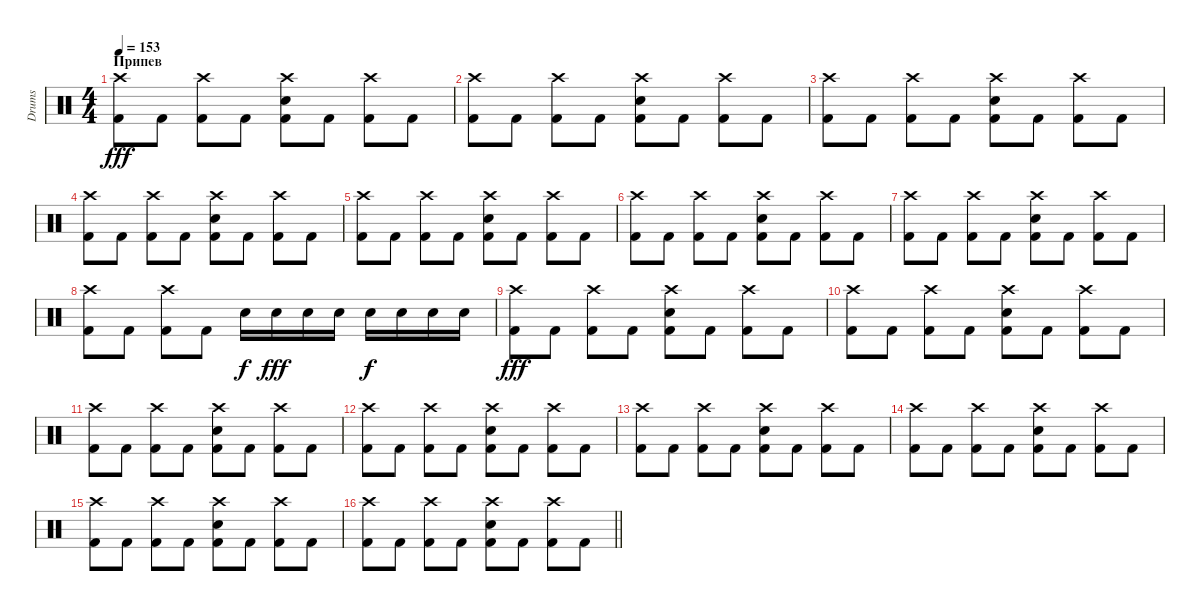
\track ("Drums" "Drums") {instrument percussion}
\staff {score}
\articulation defaults
\ts (4 4)
\section ("" "Припев")
\tempo 153
\clef neutral
\ks c
("Crash high (hit)" "Kick (hit) 2").8{dy fff} "Kick (hit) 2".8 ("Crash high (hit)" "Kick (hit) 2").8 "Kick (hit) 2".8 ("Crash high (hit)" "Electric Snare (hit)" "Kick (hit) 2").8 "Kick (hit) 2".8 ("Crash high (hit)" "Kick (hit) 2").8 "Kick (hit) 2".8 |
("Crash high (hit)" "Kick (hit) 2").8 "Kick (hit) 2".8 ("Crash high (hit)" "Kick (hit) 2").8 "Kick (hit) 2".8 ("Crash high (hit)" "Electric Snare (hit)" "Kick (hit) 2").8 "Kick (hit) 2".8 ("Crash high (hit)" "Kick (hit) 2").8 "Kick (hit) 2".8 |
("Crash high (hit)" "Kick (hit) 2").8 "Kick (hit) 2".8 ("Crash high (hit)" "Kick (hit) 2").8 "Kick (hit) 2".8 ("Crash high (hit)" "Electric Snare (hit)" "Kick (hit) 2").8 "Kick (hit) 2".8 ("Crash high (hit)" "Kick (hit) 2").8 "Kick (hit) 2".8 |
("Crash high (hit)" "Kick (hit) 2").8 "Kick (hit) 2".8 ("Crash high (hit)" "Kick (hit) 2").8 "Kick (hit) 2".8 ("Crash high (hit)" "Electric Snare (hit)" "Kick (hit) 2").8 "Kick (hit) 2".8 ("Crash high (hit)" "Kick (hit) 2").8 "Kick (hit) 2".8 |
("Crash high (hit)" "Kick (hit) 2").8 "Kick (hit) 2".8 ("Crash high (hit)" "Kick (hit) 2").8 "Kick (hit) 2".8 ("Crash high (hit)" "Electric Snare (hit)" "Kick (hit) 2").8 "Kick (hit) 2".8 ("Crash high (hit)" "Kick (hit) 2").8 "Kick (hit) 2".8 |
("Crash high (hit)" "Kick (hit) 2").8 "Kick (hit) 2".8 ("Crash high (hit)" "Kick (hit) 2").8 "Kick (hit) 2".8 ("Crash high (hit)" "Electric Snare (hit)" "Kick (hit) 2").8 "Kick (hit) 2".8 ("Crash high (hit)" "Kick (hit) 2").8 "Kick (hit) 2".8 |
("Crash high (hit)" "Kick (hit) 2").8 "Kick (hit) 2".8 ("Crash high (hit)" "Kick (hit) 2").8 "Kick (hit) 2".8 ("Crash high (hit)" "Electric Snare (hit)" "Kick (hit) 2").8 "Kick (hit) 2".8 ("Crash high (hit)" "Kick (hit) 2").8 "Kick (hit) 2".8 |
("Crash high (hit)" "Kick (hit) 2").8 "Kick (hit) 2".8 ("Crash high (hit)" "Kick (hit) 2").8 "Kick (hit) 2".8 "Electric Snare (hit)".16{dy f} "Electric Snare (hit)".16{dy fff} "Electric Snare (hit)".16 "Electric Snare (hit)".16 "Electric Snare (hit)".16{dy f} "Electric Snare (hit)".16 "Electric Snare (hit)".16 "Electric Snare (hit)".16 |
("Crash high (hit)" "Kick (hit) 2").8{dy fff} "Kick (hit) 2".8 ("Crash high (hit)" "Kick (hit) 2").8 "Kick (hit) 2".8 ("Crash high (hit)" "Electric Snare (hit)" "Kick (hit) 2").8 "Kick (hit) 2".8 ("Crash high (hit)" "Kick (hit) 2").8 "Kick (hit) 2".8 |
("Crash high (hit)" "Kick (hit) 2").8 "Kick (hit) 2".8 ("Crash high (hit)" "Kick (hit) 2").8 "Kick (hit) 2".8 ("Crash high (hit)" "Electric Snare (hit)" "Kick (hit) 2").8 "Kick (hit) 2".8 ("Crash high (hit)" "Kick (hit) 2").8 "Kick (hit) 2".8 |
("Crash high (hit)" "Kick (hit) 2").8 "Kick (hit) 2".8 ("Crash high (hit)" "Kick (hit) 2").8 "Kick (hit) 2".8 ("Crash high (hit)" "Electric Snare (hit)" "Kick (hit) 2").8 "Kick (hit) 2".8 ("Crash high (hit)" "Kick (hit) 2").8 "Kick (hit) 2".8 |
("Crash high (hit)" "Kick (hit) 2").8 "Kick (hit) 2".8 ("Crash high (hit)" "Kick (hit) 2").8 "Kick (hit) 2".8 ("Crash high (hit)" "Electric Snare (hit)" "Kick (hit) 2").8 "Kick (hit) 2".8 ("Crash high (hit)" "Kick (hit) 2").8 "Kick (hit) 2".8 |
("Crash high (hit)" "Kick (hit) 2").8 "Kick (hit) 2".8 ("Crash high (hit)" "Kick (hit) 2").8 "Kick (hit) 2".8 ("Crash high (hit)" "Electric Snare (hit)" "Kick (hit) 2").8 "Kick (hit) 2".8 ("Crash high (hit)" "Kick (hit) 2").8 "Kick (hit) 2".8 |
("Crash high (hit)" "Kick (hit) 2").8 "Kick (hit) 2".8 ("Crash high (hit)" "Kick (hit) 2").8 "Kick (hit) 2".8 ("Crash high (hit)" "Electric Snare (hit)" "Kick (hit) 2").8 "Kick (hit) 2".8 ("Crash high (hit)" "Kick (hit) 2").8 "Kick (hit) 2".8 |
("Crash high (hit)" "Kick (hit) 2").8 "Kick (hit) 2".8 ("Crash high (hit)" "Kick (hit) 2").8 "Kick (hit) 2".8 ("Crash high (hit)" "Electric Snare (hit)" "Kick (hit) 2").8 "Kick (hit) 2".8 ("Crash high (hit)" "Kick (hit) 2").8 "Kick (hit) 2".8 |
\barLineRight lightlight
("Crash high (hit)" "Kick (hit) 2").8 "Kick (hit) 2".8 ("Crash high (hit)" "Kick (hit) 2").8 "Kick (hit) 2".8 ("Crash high (hit)" "Electric Snare (hit)" "Kick (hit) 2").8 "Kick (hit) 2".8 ("Crash high (hit)" "Kick (hit) 2").8 "Kick (hit) 2".8
